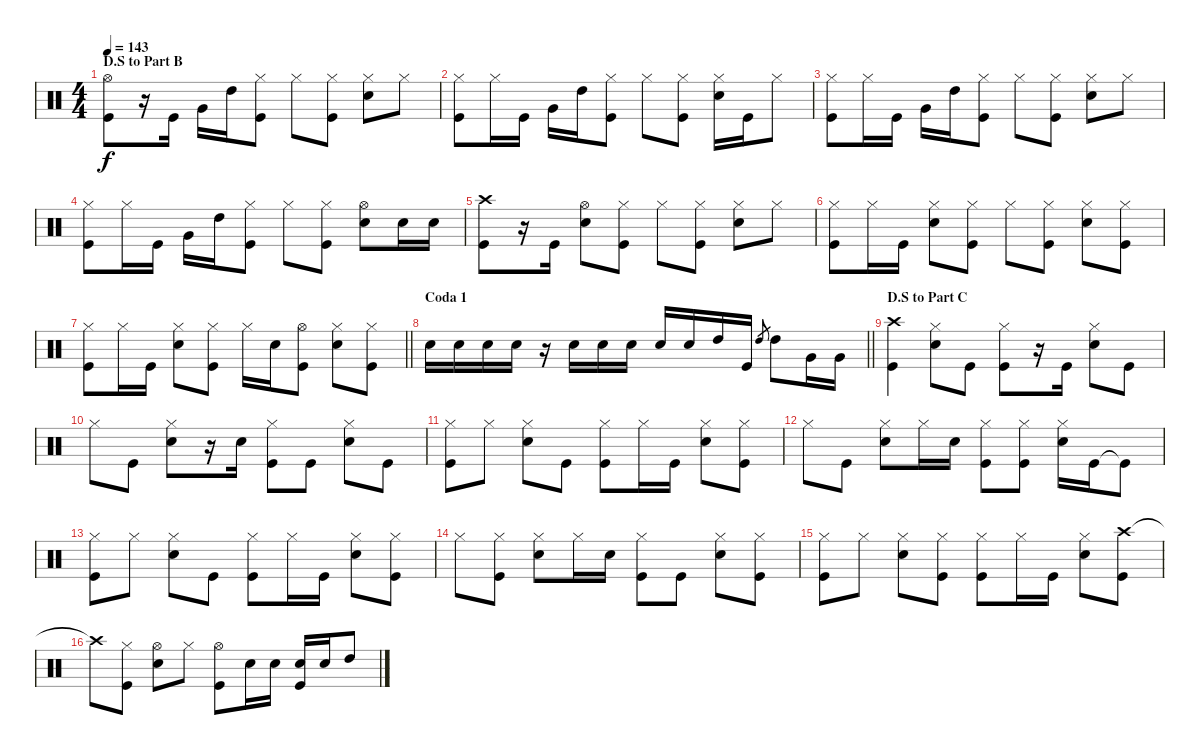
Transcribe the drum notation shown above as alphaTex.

\track "" {instrument percussion}
\staff {score}
\articulation defaults
\ts (4 4)
\section ("" "D.S to Part B")
\tempo 143
\clef neutral
\ks c
("Hi-Hat (open)" "Kick (hit)").8{dy f} r.16 "Kick (hit)".16 "Very Low Tom (hit)".16 "High Tom (hit)".16 ("Hi-Hat (closed)" "Kick (hit)").8 "Hi-Hat (closed)".8 ("Hi-Hat (closed)" "Kick (hit)").8 ("Hi-Hat (closed)" "Snare (hit) 2").8 "Hi-Hat (closed)".8 |
("Hi-Hat (closed)" "Kick (hit)").8 "Hi-Hat (closed)".16 "Kick (hit)".16 "Very Low Tom (hit)".16 "High Tom (hit)".16 ("Hi-Hat (closed)" "Kick (hit)").8 "Hi-Hat (closed)".8 ("Hi-Hat (closed)" "Kick (hit)").8 ("Hi-Hat (closed)" "Snare (hit) 2").16 "Kick (hit)".16 "Hi-Hat (closed)".8 |
("Hi-Hat (closed)" "Kick (hit)").8 "Hi-Hat (closed)".16 "Kick (hit)".16 "Very Low Tom (hit)".16 "High Tom (hit)".16 ("Hi-Hat (closed)" "Kick (hit)").8 "Hi-Hat (closed)".8 ("Hi-Hat (closed)" "Kick (hit)").8 ("Hi-Hat (closed)" "Snare (hit) 2").8 "Hi-Hat (closed)".8 |
("Hi-Hat (closed)" "Kick (hit)").8 "Hi-Hat (closed)".16 "Kick (hit)".16 "Very Low Tom (hit)".16 "High Tom (hit)".16 ("Hi-Hat (closed)" "Kick (hit)").8 "Hi-Hat (closed)".8 ("Hi-Hat (closed)" "Kick (hit)").8 ("Hi-Hat (open)" "Snare (hit) 2").8 "Snare (hit) 2".16 "Snare (hit) 2".16 |
("Crash high (hit)" "Kick (hit)").8 r.16 "Kick (hit)".16 ("Hi-Hat (open)" "Snare (hit) 2").8 ("Hi-Hat (closed)" "Kick (hit)").8 "Hi-Hat (closed)".8 ("Hi-Hat (closed)" "Kick (hit)").8 ("Hi-Hat (closed)" "Snare (hit) 2").8 "Hi-Hat (closed)".8 |
("Hi-Hat (closed)" "Kick (hit)").8 "Hi-Hat (closed)".16 "Kick (hit)".16 ("Hi-Hat (closed)" "Snare (hit) 2").8 ("Hi-Hat (closed)" "Kick (hit)").8 "Hi-Hat (closed)".8 ("Hi-Hat (closed)" "Kick (hit)").8 ("Hi-Hat (closed)" "Snare (hit) 2").8 ("Hi-Hat (closed)" "Kick (hit)").8 |
\barLineRight lightlight
("Hi-Hat (closed)" "Kick (hit)").8 "Hi-Hat (closed)".16 "Kick (hit)".16 ("Hi-Hat (closed)" "Snare (hit) 2").8 ("Hi-Hat (closed)" "Kick (hit)").8 "Hi-Hat (closed)".16 "Snare (hit) 2".16 ("Hi-Hat (open)" "Kick (hit)").8 ("Hi-Hat (closed)" "Snare (hit) 2").8 ("Hi-Hat (closed)" "Kick (hit)").8 |
\section ("" "Coda 1")
\barLineRight lightlight "Snare (hit) 2".16 "Snare (hit) 2".16 "Snare (hit) 2".16 "Snare (hit) 2".16
r.16 "Snare (hit) 2".16 "Snare (hit) 2".16 "Snare (hit) 2".16 "Snare (hit) 2".16 "Snare (hit) 2".16 "High Tom (hit)".16 "Kick (hit)".16 "High Tom (hit)".8{gr} "High Tom (hit)".8 "Very Low Tom (hit)".16 "Very Low Tom (hit)".16 |
\section ("" "D.S to Part C")
("Crash high (hit)" "Kick (hit)").4 ("Hi-Hat (closed)" "Snare (hit) 2").8 "Kick (hit)".8 ("Hi-Hat (closed)" "Kick (hit)").8 r.16 "Kick (hit)".16 ("Hi-Hat (closed)" "Snare (hit) 2").8 "Kick (hit)".8 |
"Hi-Hat (closed)".8 "Kick (hit)".8 ("Hi-Hat (closed)" "Snare (hit) 2").8 r.16 "Snare (hit) 2".16 ("Hi-Hat (closed)" "Kick (hit)").8 "Kick (hit)".8 ("Hi-Hat (closed)" "Snare (hit) 2").8 "Kick (hit)".8 |
("Hi-Hat (closed)" "Kick (hit)").8 "Hi-Hat (closed)".8 ("Hi-Hat (closed)" "Snare (hit) 2").8 "Kick (hit)".8 ("Hi-Hat (closed)" "Kick (hit)").8 "Hi-Hat (closed)".16 "Kick (hit)".16 ("Hi-Hat (closed)" "Snare (hit) 2").8 ("Hi-Hat (closed)" "Kick (hit)").8 |
"Hi-Hat (closed)".8 "Kick (hit)".8 ("Hi-Hat (closed)" "Snare (hit) 2").8 "Hi-Hat (closed)".16 "Snare (hit) 2".16 ("Hi-Hat (closed)" "Kick (hit)").8 ("Hi-Hat (closed)" "Kick (hit)").8 ("Hi-Hat (closed)" "Snare (hit) 2").16 "Kick (hit)".16 "Kick (hit)"{t}.8 |
("Hi-Hat (closed)" "Kick (hit)").8 "Hi-Hat (closed)".8 ("Hi-Hat (closed)" "Snare (hit) 2").8 "Kick (hit)".8 ("Hi-Hat (closed)" "Kick (hit)").8 "Hi-Hat (closed)".16 "Kick (hit)".16 ("Hi-Hat (closed)" "Snare (hit) 2").8 ("Hi-Hat (closed)" "Kick (hit)").8 |
"Hi-Hat (closed)".8 ("Hi-Hat (closed)" "Kick (hit)").8 ("Hi-Hat (closed)" "Snare (hit) 2").8 "Hi-Hat (closed)".16 "Snare (hit) 2".16 ("Hi-Hat (closed)" "Kick (hit)").8 "Kick (hit)".8 ("Hi-Hat (closed)" "Snare (hit) 2").8 ("Hi-Hat (closed)" "Kick (hit)").8 |
("Hi-Hat (closed)" "Kick (hit)").8 "Hi-Hat (closed)".8 ("Hi-Hat (closed)" "Snare (hit) 2").8 ("Hi-Hat (closed)" "Kick (hit)").8 ("Hi-Hat (closed)" "Kick (hit)").8 "Hi-Hat (closed)".16 "Kick (hit)".16 ("Hi-Hat (closed)" "Snare (hit) 2").8 ("Crash high (hit)" "Kick (hit)").8 |
"Crash high (hit)"{t}.8 ("Hi-Hat (closed)" "Kick (hit)").8 ("Hi-Hat (open)" "Snare (hit) 2").8 "Hi-Hat (closed)".8 ("Hi-Hat (open)" "Kick (hit)").8 "Snare (hit) 2".16 "Snare (hit) 2".16 ("Snare (hit) 2" "Kick (hit)").16 "Snare (hit) 2".16 "High Tom (hit)".8
